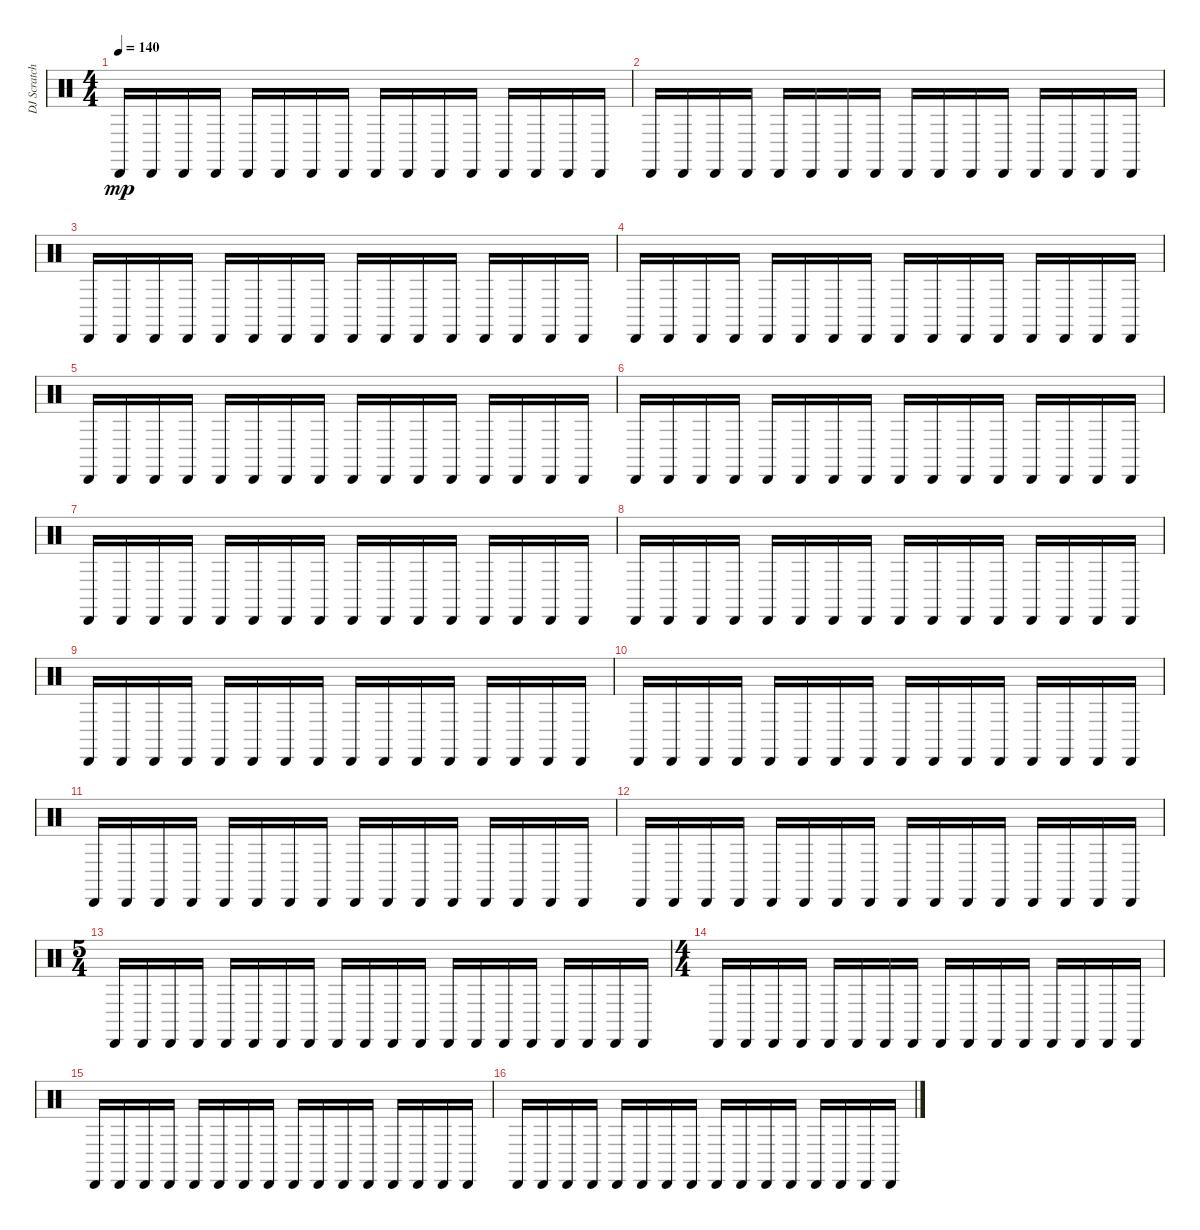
\track ("DJ Scratches/ Percussion" "DJ Scratch") {instrument percussion}
\staff {score}
\articulation defaults
\ts (4 4)
\tempo 140
\clef neutral
\ks c "Cabasa (hit)".16{dy mp} "Cabasa (hit)".16 "Cabasa (hit)".16 "Cabasa (hit)".16 "Cabasa (hit)".16 "Cabasa (hit)".16 "Cabasa (hit)".16 "Cabasa (hit)".16 "Cabasa (hit)".16 "Cabasa (hit)".16 "Cabasa (hit)".16 "Cabasa (hit)".16 "Cabasa (hit)".16 "Cabasa (hit)".16 "Cabasa (hit)".16 "Cabasa (hit)".16
|
"Cabasa (hit)".16 "Cabasa (hit)".16 "Cabasa (hit)".16 "Cabasa (hit)".16 "Cabasa (hit)".16 "Cabasa (hit)".16 "Cabasa (hit)".16 "Cabasa (hit)".16 "Cabasa (hit)".16 "Cabasa (hit)".16 "Cabasa (hit)".16 "Cabasa (hit)".16 "Cabasa (hit)".16 "Cabasa (hit)".16 "Cabasa (hit)".16 "Cabasa (hit)".16 |
"Cabasa (hit)".16 "Cabasa (hit)".16 "Cabasa (hit)".16 "Cabasa (hit)".16 "Cabasa (hit)".16 "Cabasa (hit)".16 "Cabasa (hit)".16 "Cabasa (hit)".16 "Cabasa (hit)".16 "Cabasa (hit)".16 "Cabasa (hit)".16 "Cabasa (hit)".16 "Cabasa (hit)".16 "Cabasa (hit)".16 "Cabasa (hit)".16 "Cabasa (hit)".16 |
"Cabasa (hit)".16 "Cabasa (hit)".16 "Cabasa (hit)".16 "Cabasa (hit)".16 "Cabasa (hit)".16 "Cabasa (hit)".16 "Cabasa (hit)".16 "Cabasa (hit)".16 "Cabasa (hit)".16 "Cabasa (hit)".16 "Cabasa (hit)".16 "Cabasa (hit)".16 "Cabasa (hit)".16 "Cabasa (hit)".16 "Cabasa (hit)".16 "Cabasa (hit)".16 |
"Cabasa (hit)".16 "Cabasa (hit)".16 "Cabasa (hit)".16 "Cabasa (hit)".16 "Cabasa (hit)".16 "Cabasa (hit)".16 "Cabasa (hit)".16 "Cabasa (hit)".16 "Cabasa (hit)".16 "Cabasa (hit)".16 "Cabasa (hit)".16 "Cabasa (hit)".16 "Cabasa (hit)".16 "Cabasa (hit)".16 "Cabasa (hit)".16 "Cabasa (hit)".16 |
"Cabasa (hit)".16 "Cabasa (hit)".16 "Cabasa (hit)".16 "Cabasa (hit)".16 "Cabasa (hit)".16 "Cabasa (hit)".16 "Cabasa (hit)".16 "Cabasa (hit)".16 "Cabasa (hit)".16 "Cabasa (hit)".16 "Cabasa (hit)".16 "Cabasa (hit)".16 "Cabasa (hit)".16 "Cabasa (hit)".16 "Cabasa (hit)".16 "Cabasa (hit)".16 |
"Cabasa (hit)".16 "Cabasa (hit)".16 "Cabasa (hit)".16 "Cabasa (hit)".16 "Cabasa (hit)".16 "Cabasa (hit)".16 "Cabasa (hit)".16 "Cabasa (hit)".16 "Cabasa (hit)".16 "Cabasa (hit)".16 "Cabasa (hit)".16 "Cabasa (hit)".16 "Cabasa (hit)".16 "Cabasa (hit)".16 "Cabasa (hit)".16 "Cabasa (hit)".16 |
"Cabasa (hit)".16 "Cabasa (hit)".16 "Cabasa (hit)".16 "Cabasa (hit)".16 "Cabasa (hit)".16 "Cabasa (hit)".16 "Cabasa (hit)".16 "Cabasa (hit)".16 "Cabasa (hit)".16 "Cabasa (hit)".16 "Cabasa (hit)".16 "Cabasa (hit)".16 "Cabasa (hit)".16 "Cabasa (hit)".16 "Cabasa (hit)".16 "Cabasa (hit)".16 |
"Cabasa (hit)".16 "Cabasa (hit)".16 "Cabasa (hit)".16 "Cabasa (hit)".16 "Cabasa (hit)".16 "Cabasa (hit)".16 "Cabasa (hit)".16 "Cabasa (hit)".16 "Cabasa (hit)".16 "Cabasa (hit)".16 "Cabasa (hit)".16 "Cabasa (hit)".16 "Cabasa (hit)".16 "Cabasa (hit)".16 "Cabasa (hit)".16 "Cabasa (hit)".16 |
"Cabasa (hit)".16 "Cabasa (hit)".16 "Cabasa (hit)".16 "Cabasa (hit)".16 "Cabasa (hit)".16 "Cabasa (hit)".16 "Cabasa (hit)".16 "Cabasa (hit)".16 "Cabasa (hit)".16 "Cabasa (hit)".16 "Cabasa (hit)".16 "Cabasa (hit)".16 "Cabasa (hit)".16 "Cabasa (hit)".16 "Cabasa (hit)".16 "Cabasa (hit)".16 |
"Cabasa (hit)".16 "Cabasa (hit)".16 "Cabasa (hit)".16 "Cabasa (hit)".16 "Cabasa (hit)".16 "Cabasa (hit)".16 "Cabasa (hit)".16 "Cabasa (hit)".16 "Cabasa (hit)".16 "Cabasa (hit)".16 "Cabasa (hit)".16 "Cabasa (hit)".16 "Cabasa (hit)".16 "Cabasa (hit)".16 "Cabasa (hit)".16 "Cabasa (hit)".16 |
"Cabasa (hit)".16 "Cabasa (hit)".16 "Cabasa (hit)".16 "Cabasa (hit)".16 "Cabasa (hit)".16 "Cabasa (hit)".16 "Cabasa (hit)".16 "Cabasa (hit)".16 "Cabasa (hit)".16 "Cabasa (hit)".16 "Cabasa (hit)".16 "Cabasa (hit)".16 "Cabasa (hit)".16 "Cabasa (hit)".16 "Cabasa (hit)".16 "Cabasa (hit)".16 |
\ts (5 4)
"Cabasa (hit)".16 "Cabasa (hit)".16 "Cabasa (hit)".16 "Cabasa (hit)".16 "Cabasa (hit)".16 "Cabasa (hit)".16 "Cabasa (hit)".16 "Cabasa (hit)".16 "Cabasa (hit)".16 "Cabasa (hit)".16 "Cabasa (hit)".16 "Cabasa (hit)".16 "Cabasa (hit)".16 "Cabasa (hit)".16 "Cabasa (hit)".16 "Cabasa (hit)".16 "Cabasa (hit)".16 "Cabasa (hit)".16 "Cabasa (hit)".16 "Cabasa (hit)".16 |
\ts (4 4)
"Cabasa (hit)".16 "Cabasa (hit)".16 "Cabasa (hit)".16 "Cabasa (hit)".16 "Cabasa (hit)".16 "Cabasa (hit)".16 "Cabasa (hit)".16 "Cabasa (hit)".16 "Cabasa (hit)".16 "Cabasa (hit)".16 "Cabasa (hit)".16 "Cabasa (hit)".16 "Cabasa (hit)".16 "Cabasa (hit)".16 "Cabasa (hit)".16 "Cabasa (hit)".16 |
"Cabasa (hit)".16 "Cabasa (hit)".16 "Cabasa (hit)".16 "Cabasa (hit)".16 "Cabasa (hit)".16 "Cabasa (hit)".16 "Cabasa (hit)".16 "Cabasa (hit)".16 "Cabasa (hit)".16 "Cabasa (hit)".16 "Cabasa (hit)".16 "Cabasa (hit)".16 "Cabasa (hit)".16 "Cabasa (hit)".16 "Cabasa (hit)".16 "Cabasa (hit)".16 |
"Cabasa (hit)".16 "Cabasa (hit)".16 "Cabasa (hit)".16 "Cabasa (hit)".16 "Cabasa (hit)".16 "Cabasa (hit)".16 "Cabasa (hit)".16 "Cabasa (hit)".16 "Cabasa (hit)".16 "Cabasa (hit)".16 "Cabasa (hit)".16 "Cabasa (hit)".16 "Cabasa (hit)".16 "Cabasa (hit)".16 "Cabasa (hit)".16 "Cabasa (hit)".16
